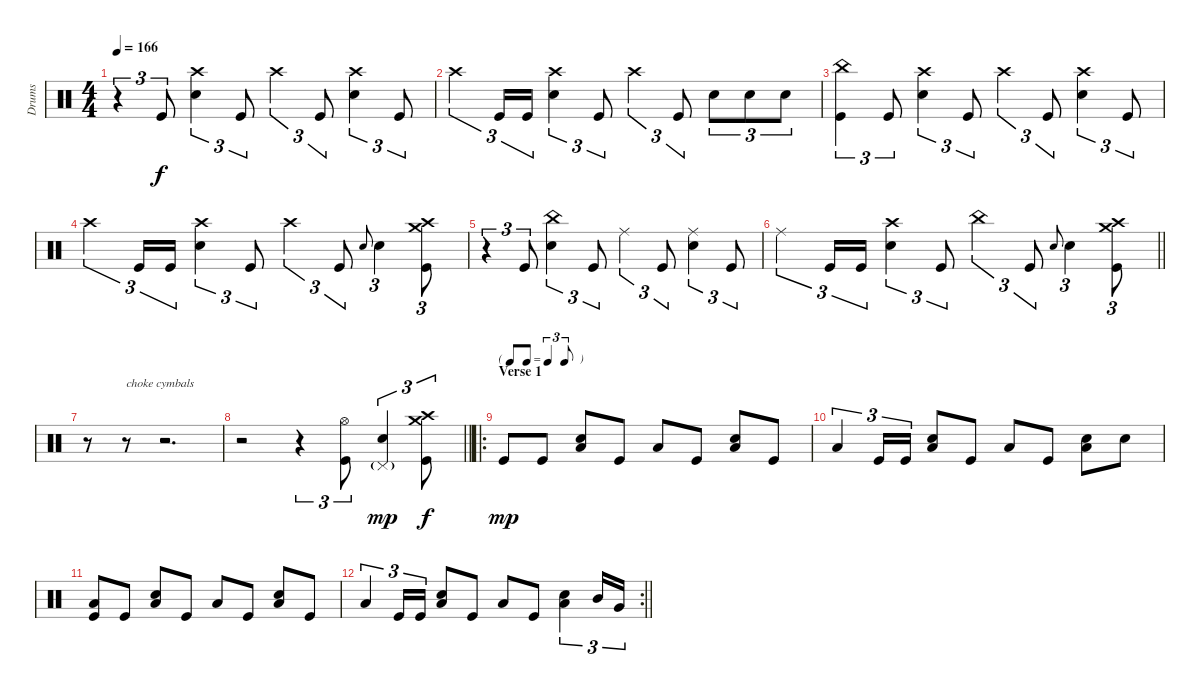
\track ("Drums" "Drums") {instrument percussion}
\staff {score}
\articulation defaults
\ts (4 4)
\tempo 166
\clef neutral
\ks c
r.4{tu (3 2) dy f} "Kick (hit)".8{tu (3 2)} ("Crash high (hit)" "Electric Snare (hit)").4{tu (3 2)} "Kick (hit)".8{tu (3 2)} "Crash high (hit)".4{tu (3 2)} "Kick (hit)".8{tu (3 2)} ("Crash high (hit)" "Electric Snare (hit)").4{tu (3 2)} "Kick (hit)".8{tu (3 2)} |
"Crash high (hit)".4{tu (3 2)} "Kick (hit)".16{tu (3 2)} "Kick (hit)".16{tu (3 2)} ("Crash high (hit)" "Electric Snare (hit)").4{tu (3 2)} "Kick (hit)".8{tu (3 2)} "Crash high (hit)".4{tu (3 2)} "Kick (hit)".8{tu (3 2)} "Electric Snare (hit)".8{tu (3 2)} "Electric Snare (hit)".8{tu (3 2)} "Electric Snare (hit)".8{tu (3 2)} |
("China (hit)" "Kick (hit)").4{tu (3 2)} "Kick (hit)".8{tu (3 2)} ("Crash high (hit)" "Electric Snare (hit)").4{tu (3 2)} "Kick (hit)".8{tu (3 2)} "Crash high (hit)".4{tu (3 2)} "Kick (hit)".8{tu (3 2)} ("Crash high (hit)" "Electric Snare (hit)").4{tu (3 2)} "Kick (hit)".8{tu (3 2)} |
"Crash high (hit)".4{tu (3 2)} "Kick (hit)".16{tu (3 2)} "Kick (hit)".16{tu (3 2)} ("Crash high (hit)" "Electric Snare (hit)").4{tu (3 2)} "Kick (hit)".8{tu (3 2)} "Crash high (hit)".4{tu (3 2)} "Kick (hit)".8{tu (3 2)} "Electric Snare (hit)".8{gr onbeat} "Electric Snare (hit)".4{tu (3 2)} ("Crash high (hit)" "Crash medium (hit)" "Kick (hit)").8{tu (3 2)} |
r.4{tu (3 2)} "Kick (hit)".8{tu (3 2)} ("China (hit)" "Electric Snare (hit)").4{tu (3 2)} "Kick (hit)".8{tu (3 2)} "Ride (middle)".4{tu (3 2)} "Kick (hit)".8{tu (3 2)} ("Ride (middle)" "Electric Snare (hit)").4{tu (3 2)} "Kick (hit)".8{tu (3 2)} |
\barLineRight lightlight "Ride (middle)".4{tu (3 2)} "Kick (hit)".16{tu (3 2)} "Kick (hit)".16{tu (3 2)}
("Crash high (hit)" "Electric Snare (hit)").4{tu (3 2)} "Kick (hit)".8{tu (3 2)} "China (hit)".4{tu (3 2)} "Kick (hit)".8{tu (3 2)} "Electric Snare (hit)".8{gr onbeat} "Electric Snare (hit)".4{tu (3 2)} ("Crash high (hit)" "Crash medium (hit)" "Kick (hit)").8{tu (3 2)} |
\section ("" "")
r.8 r.8{txt "choke cymbals" volume 0} r.2{d} |
\barLineRight lightlight
r.2 r.4{tu (3 2)} ("Hi-Hat (open)" "Kick (hit)").8{tu (3 2) volume 13} ("Pedal Hi-Hat (hit)"{g} "Electric Snare (hit)").4{tu (3 2) dy mp} ("Crash high (hit)" "Crash medium (hit)" "Kick (hit)").8{tu (3 2) dy f} |
\ro
\tf triplet8th
\section ("" "Verse 1")
"Kick (hit)".8{dy mp} "Kick (hit)".8 ("Low Floor Tom (hit)" "Electric Snare (hit)").8 "Kick (hit)".8 "Low Floor Tom (hit)".8 "Kick (hit)".8 ("Low Floor Tom (hit)" "Electric Snare (hit)").8 "Kick (hit)".8 |
"Low Floor Tom (hit)".4{tu (3 2)} "Kick (hit)".16{tu (3 2)} "Kick (hit)".16{tu (3 2)} ("Low Floor Tom (hit)" "Electric Snare (hit)").8 "Kick (hit)".8 "Low Floor Tom (hit)".8 "Kick (hit)".8 ("Low Floor Tom (hit)" "Electric Snare (hit)").8 "Electric Snare (hit)".8 |
("Low Floor Tom (hit)" "Kick (hit)").8 "Kick (hit)".8 ("Low Floor Tom (hit)" "Electric Snare (hit)").8 "Kick (hit)".8 "Low Floor Tom (hit)".8 "Kick (hit)".8 ("Low Floor Tom (hit)" "Electric Snare (hit)").8 "Kick (hit)".8 |
\rc 2
\barLineRight lightlight "Low Floor Tom (hit)".4{tu (3 2)} "Kick (hit)".16{tu (3 2)} "Kick (hit)".16{tu (3 2)}
("Low Floor Tom (hit)" "Electric Snare (hit)").8 "Kick (hit)".8 "Low Floor Tom (hit)".8 "Kick (hit)".8 ("Low Floor Tom (hit)" "Electric Snare (hit)").4{tu (3 2)} "Mid Tom (hit)".16{tu (3 2)} "Very Low Tom (hit)".16{tu (3 2)}
